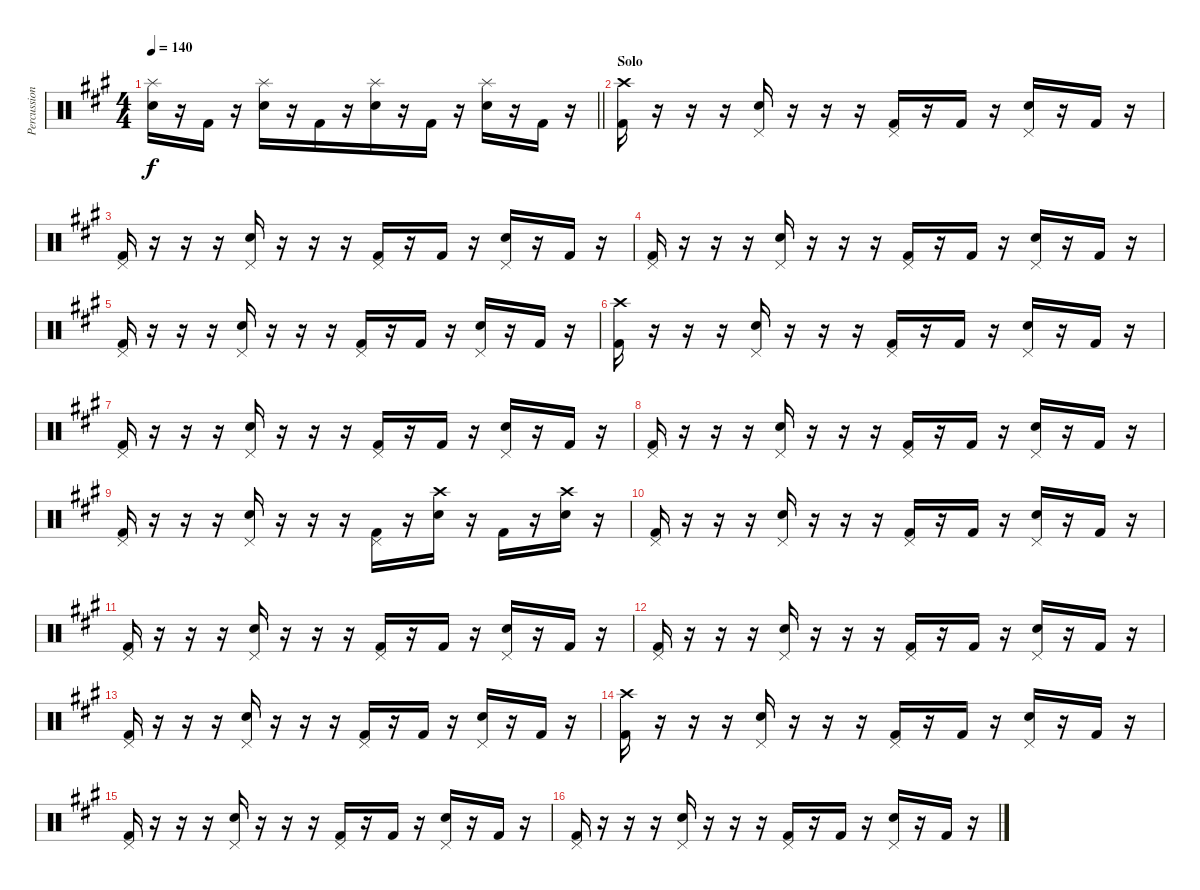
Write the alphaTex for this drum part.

\track ("Percussion" "Percussion") {instrument percussion}
\staff {score}
\articulation defaults
\ts (4 4)
\tempo 140
\clef neutral
\barLineRight lightlight
\ks a
("Electric Snare (hit)" "Splash (hit)").16{dy f} r.16{beam merge} "Kick (hit) 2".16 r.16{beam merge} ("Electric Snare (hit)" "Splash (hit)").16 r.16 "Kick (hit) 2".16{beam merge} r.16 ("Electric Snare (hit)" "Splash (hit)").16 r.16 "Kick (hit) 2".16 r.16 ("Electric Snare (hit)" "Splash (hit)").16 r.16{beam merge} "Kick (hit) 2".16 r.16 |
\section ("" "Solo")
("Kick (hit) 2" "Crash high (hit)").16 r.16{beam merge} r.16 r.16{beam merge} ("Electric Snare (hit)" "Pedal Hi-Hat (hit)").16 r.16 r.16{beam merge} r.16 ("Kick (hit) 2" "Pedal Hi-Hat (hit)").16 r.16 "Kick (hit) 2".16 r.16 ("Electric Snare (hit)" "Pedal Hi-Hat (hit)").16 r.16{beam merge} "Kick (hit) 2".16 r.16 |
("Kick (hit) 2" "Pedal Hi-Hat (hit)").16 r.16{beam merge} r.16 r.16{beam merge} ("Electric Snare (hit)" "Pedal Hi-Hat (hit)").16 r.16 r.16{beam merge} r.16 ("Kick (hit) 2" "Pedal Hi-Hat (hit)").16 r.16 "Kick (hit) 2".16 r.16 ("Electric Snare (hit)" "Pedal Hi-Hat (hit)").16 r.16{beam merge} "Kick (hit) 2".16 r.16 |
("Kick (hit) 2" "Pedal Hi-Hat (hit)").16 r.16{beam merge} r.16 r.16{beam merge} ("Electric Snare (hit)" "Pedal Hi-Hat (hit)").16 r.16 r.16{beam merge} r.16 ("Kick (hit) 2" "Pedal Hi-Hat (hit)").16 r.16 "Kick (hit) 2".16 r.16 ("Electric Snare (hit)" "Pedal Hi-Hat (hit)").16 r.16{beam merge} "Kick (hit) 2".16 r.16 |
("Kick (hit) 2" "Pedal Hi-Hat (hit)").16 r.16{beam merge} r.16 r.16{beam merge} ("Electric Snare (hit)" "Pedal Hi-Hat (hit)").16 r.16 r.16{beam merge} r.16 ("Kick (hit) 2" "Pedal Hi-Hat (hit)").16 r.16 "Kick (hit) 2".16 r.16 ("Electric Snare (hit)" "Pedal Hi-Hat (hit)").16 r.16{beam merge} "Kick (hit) 2".16 r.16 |
("Kick (hit) 2" "Crash high (hit)").16 r.16{beam merge} r.16 r.16{beam merge} ("Electric Snare (hit)" "Pedal Hi-Hat (hit)").16 r.16 r.16{beam merge} r.16 ("Kick (hit) 2" "Pedal Hi-Hat (hit)").16 r.16 "Kick (hit) 2".16 r.16 ("Electric Snare (hit)" "Pedal Hi-Hat (hit)").16 r.16{beam merge} "Kick (hit) 2".16 r.16 |
("Kick (hit) 2" "Pedal Hi-Hat (hit)").16 r.16{beam merge} r.16 r.16{beam merge} ("Electric Snare (hit)" "Pedal Hi-Hat (hit)").16 r.16 r.16{beam merge} r.16 ("Kick (hit) 2" "Pedal Hi-Hat (hit)").16 r.16 "Kick (hit) 2".16 r.16 ("Electric Snare (hit)" "Pedal Hi-Hat (hit)").16 r.16{beam merge} "Kick (hit) 2".16 r.16 |
("Kick (hit) 2" "Pedal Hi-Hat (hit)").16 r.16{beam merge} r.16 r.16{beam merge} ("Electric Snare (hit)" "Pedal Hi-Hat (hit)").16 r.16 r.16{beam merge} r.16 ("Kick (hit) 2" "Pedal Hi-Hat (hit)").16 r.16 "Kick (hit) 2".16 r.16 ("Electric Snare (hit)" "Pedal Hi-Hat (hit)").16 r.16{beam merge} "Kick (hit) 2".16 r.16 |
("Kick (hit) 2" "Pedal Hi-Hat (hit)").16 r.16{beam merge} r.16 r.16{beam merge} ("Electric Snare (hit)" "Pedal Hi-Hat (hit)").16 r.16 r.16{beam merge} r.16 ("Kick (hit) 2" "Pedal Hi-Hat (hit)").16 r.16 ("Electric Snare (hit)" "Crash high (hit)").16 r.16 "Kick (hit) 2".16 r.16{beam merge} ("Electric Snare (hit)" "Crash high (hit)").16 r.16 |
("Kick (hit) 2" "Pedal Hi-Hat (hit)").16 r.16{beam merge} r.16 r.16{beam merge} ("Electric Snare (hit)" "Pedal Hi-Hat (hit)").16 r.16 r.16{beam merge} r.16 ("Kick (hit) 2" "Pedal Hi-Hat (hit)").16 r.16 "Kick (hit) 2".16 r.16 ("Electric Snare (hit)" "Pedal Hi-Hat (hit)").16 r.16{beam merge} "Kick (hit) 2".16 r.16 |
("Kick (hit) 2" "Pedal Hi-Hat (hit)").16 r.16{beam merge} r.16 r.16{beam merge} ("Electric Snare (hit)" "Pedal Hi-Hat (hit)").16 r.16 r.16{beam merge} r.16 ("Kick (hit) 2" "Pedal Hi-Hat (hit)").16 r.16 "Kick (hit) 2".16 r.16 ("Electric Snare (hit)" "Pedal Hi-Hat (hit)").16 r.16{beam merge} "Kick (hit) 2".16 r.16 |
("Kick (hit) 2" "Pedal Hi-Hat (hit)").16 r.16{beam merge} r.16 r.16{beam merge} ("Electric Snare (hit)" "Pedal Hi-Hat (hit)").16 r.16 r.16{beam merge} r.16 ("Kick (hit) 2" "Pedal Hi-Hat (hit)").16 r.16 "Kick (hit) 2".16 r.16 ("Electric Snare (hit)" "Pedal Hi-Hat (hit)").16 r.16{beam merge} "Kick (hit) 2".16 r.16 |
("Kick (hit) 2" "Pedal Hi-Hat (hit)").16 r.16{beam merge} r.16 r.16{beam merge} ("Electric Snare (hit)" "Pedal Hi-Hat (hit)").16 r.16 r.16{beam merge} r.16 ("Kick (hit) 2" "Pedal Hi-Hat (hit)").16 r.16 "Kick (hit) 2".16 r.16 ("Electric Snare (hit)" "Pedal Hi-Hat (hit)").16 r.16{beam merge} "Kick (hit) 2".16 r.16 |
("Kick (hit) 2" "Crash high (hit)").16 r.16{beam merge} r.16 r.16{beam merge} ("Electric Snare (hit)" "Pedal Hi-Hat (hit)").16 r.16 r.16{beam merge} r.16 ("Kick (hit) 2" "Pedal Hi-Hat (hit)").16 r.16 "Kick (hit) 2".16 r.16 ("Electric Snare (hit)" "Pedal Hi-Hat (hit)").16 r.16{beam merge} "Kick (hit) 2".16 r.16 |
("Kick (hit) 2" "Pedal Hi-Hat (hit)").16 r.16{beam merge} r.16 r.16{beam merge} ("Electric Snare (hit)" "Pedal Hi-Hat (hit)").16 r.16 r.16{beam merge} r.16 ("Kick (hit) 2" "Pedal Hi-Hat (hit)").16 r.16 "Kick (hit) 2".16 r.16 ("Electric Snare (hit)" "Pedal Hi-Hat (hit)").16 r.16{beam merge} "Kick (hit) 2".16 r.16 |
("Kick (hit) 2" "Pedal Hi-Hat (hit)").16 r.16{beam merge} r.16 r.16{beam merge} ("Electric Snare (hit)" "Pedal Hi-Hat (hit)").16 r.16 r.16{beam merge} r.16 ("Kick (hit) 2" "Pedal Hi-Hat (hit)").16 r.16 "Kick (hit) 2".16 r.16 ("Electric Snare (hit)" "Pedal Hi-Hat (hit)").16 r.16{beam merge} "Kick (hit) 2".16 r.16
